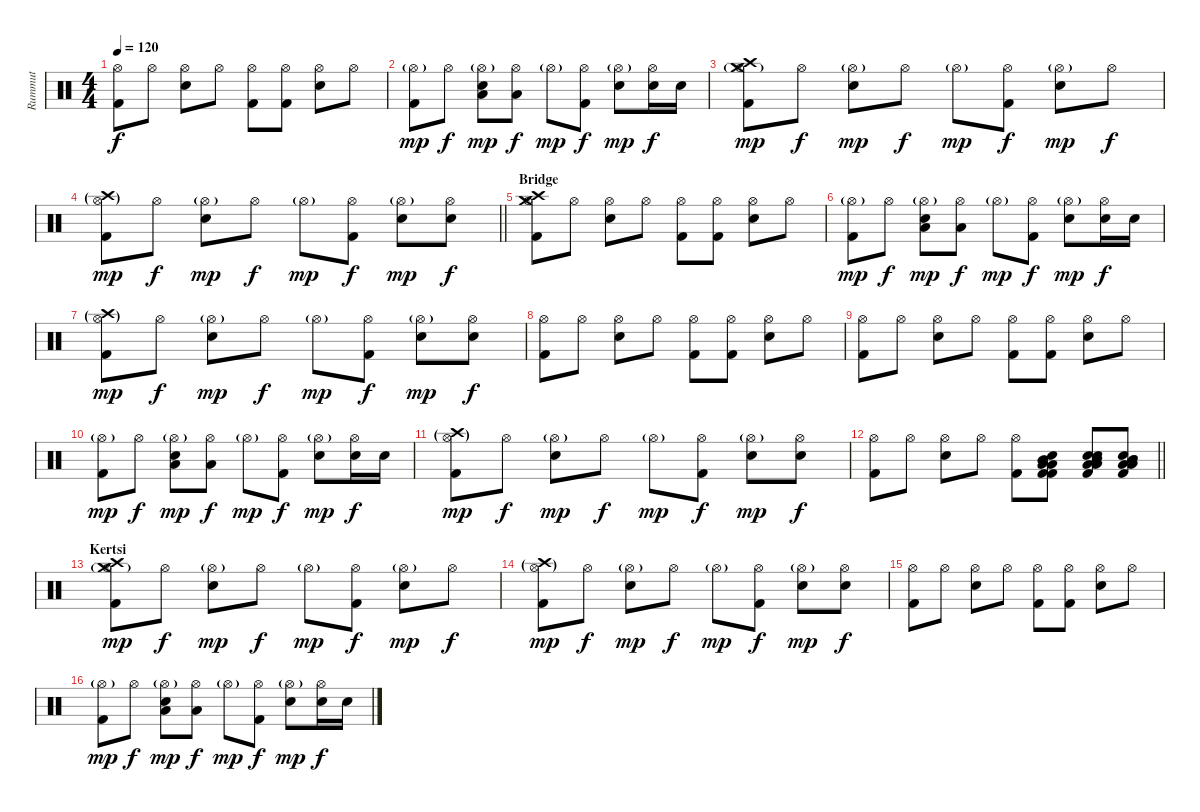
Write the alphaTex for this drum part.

\track ("Rummut" "Rummut") {instrument percussion}
\staff {score}
\articulation defaults
\ts (4 4)
\tempo 120
\clef neutral
\ks c
("Hi-Hat (open)" "Kick (hit) 2").8{dy f} "Hi-Hat (open)".8 ("Hi-Hat (open)" "Snare (hit) 2").8 "Hi-Hat (open)".8 ("Hi-Hat (open)" "Kick (hit) 2").8 ("Hi-Hat (open)" "Kick (hit) 2").8 ("Hi-Hat (open)" "Snare (hit) 2").8 "Hi-Hat (open)".8 |
("Hi-Hat (open)"{g} "Kick (hit) 2").8{dy mp} "Hi-Hat (open)".8{dy f} ("Hi-Hat (open)"{g} "Snare (hit) 2" "Low Tom (hit)").8{dy mp} ("Hi-Hat (open)" "Low Tom (hit)").8{dy f} "Hi-Hat (open)"{g}.8{dy mp} ("Hi-Hat (open)" "Kick (hit) 2").8{dy f} ("Hi-Hat (open)"{g} "Snare (hit) 2").8{dy mp} ("Hi-Hat (open)" "Snare (hit) 2").16{dy f} "Snare (hit) 2".16 |
("Hi-Hat (open)"{g} "Kick (hit) 2" "Crash medium (hit)" "Crash high (hit)").8{dy mp} "Hi-Hat (open)".8{dy f} ("Hi-Hat (open)"{g} "Snare (hit) 2").8{dy mp} "Hi-Hat (open)".8{dy f} "Hi-Hat (open)"{g}.8{dy mp} ("Hi-Hat (open)" "Kick (hit) 2").8{dy f} ("Hi-Hat (open)"{g} "Snare (hit) 2").8{dy mp} "Hi-Hat (open)".8{dy f} |
\barLineRight lightlight
("Hi-Hat (open)"{g} "Kick (hit) 2" "Crash high (hit)"{g}).8{dy mp} "Hi-Hat (open)".8{dy f} ("Hi-Hat (open)"{g} "Snare (hit) 2").8{dy mp} "Hi-Hat (open)".8{dy f} "Hi-Hat (open)"{g}.8{dy mp} ("Hi-Hat (open)" "Kick (hit) 2").8{dy f} ("Hi-Hat (open)"{g} "Snare (hit) 2").8{dy mp} ("Hi-Hat (open)" "Snare (hit) 2").8{dy f} |
\section ("" "Bridge")
("Hi-Hat (open)" "Kick (hit) 2" "Crash medium (hit)" "Crash high (hit)").8 "Hi-Hat (open)".8 ("Hi-Hat (open)" "Snare (hit) 2").8 "Hi-Hat (open)".8 ("Hi-Hat (open)" "Kick (hit) 2").8 ("Hi-Hat (open)" "Kick (hit) 2").8 ("Hi-Hat (open)" "Snare (hit) 2").8 "Hi-Hat (open)".8 |
("Hi-Hat (open)"{g} "Kick (hit) 2").8{dy mp} "Hi-Hat (open)".8{dy f} ("Hi-Hat (open)"{g} "Snare (hit) 2" "Low Tom (hit)").8{dy mp} ("Hi-Hat (open)" "Low Tom (hit)").8{dy f} "Hi-Hat (open)"{g}.8{dy mp} ("Hi-Hat (open)" "Kick (hit) 2").8{dy f} ("Hi-Hat (open)"{g} "Snare (hit) 2").8{dy mp} ("Hi-Hat (open)" "Snare (hit) 2").16{dy f} "Snare (hit) 2".16 |
("Hi-Hat (open)"{g} "Kick (hit) 2" "Crash high (hit)"{g}).8{dy mp} "Hi-Hat (open)".8{dy f} ("Hi-Hat (open)"{g} "Snare (hit) 2").8{dy mp} "Hi-Hat (open)".8{dy f} "Hi-Hat (open)"{g}.8{dy mp} ("Hi-Hat (open)" "Kick (hit) 2").8{dy f} ("Hi-Hat (open)"{g} "Snare (hit) 2").8{dy mp} ("Hi-Hat (open)" "Snare (hit) 2").8{dy f} |
("Hi-Hat (open)" "Kick (hit) 2").8 "Hi-Hat (open)".8 ("Hi-Hat (open)" "Snare (hit) 2").8 "Hi-Hat (open)".8 ("Hi-Hat (open)" "Kick (hit) 2").8 ("Hi-Hat (open)" "Kick (hit) 2").8 ("Hi-Hat (open)" "Snare (hit) 2").8 "Hi-Hat (open)".8 |
("Hi-Hat (open)" "Kick (hit) 2").8 "Hi-Hat (open)".8 ("Hi-Hat (open)" "Snare (hit) 2").8 "Hi-Hat (open)".8 ("Hi-Hat (open)" "Kick (hit) 2").8 ("Hi-Hat (open)" "Kick (hit) 2").8 ("Hi-Hat (open)" "Snare (hit) 2").8 "Hi-Hat (open)".8 |
("Hi-Hat (open)"{g} "Kick (hit) 2").8{dy mp} "Hi-Hat (open)".8{dy f} ("Hi-Hat (open)"{g} "Snare (hit) 2" "Low Tom (hit)").8{dy mp} ("Hi-Hat (open)" "Low Tom (hit)").8{dy f} "Hi-Hat (open)"{g}.8{dy mp} ("Hi-Hat (open)" "Kick (hit) 2").8{dy f} ("Hi-Hat (open)"{g} "Snare (hit) 2").8{dy mp} ("Hi-Hat (open)" "Snare (hit) 2").16{dy f} "Snare (hit) 2".16 |
("Hi-Hat (open)"{g} "Kick (hit) 2" "Crash high (hit)"{g}).8{dy mp} "Hi-Hat (open)".8{dy f} ("Hi-Hat (open)"{g} "Snare (hit) 2").8{dy mp} "Hi-Hat (open)".8{dy f} "Hi-Hat (open)"{g}.8{dy mp} ("Hi-Hat (open)" "Kick (hit) 2").8{dy f} ("Hi-Hat (open)"{g} "Snare (hit) 2").8{dy mp} ("Hi-Hat (open)" "Snare (hit) 2").8{dy f} |
\barLineRight lightlight
("Hi-Hat (open)" "Kick (hit) 2").8 "Hi-Hat (open)".8 ("Hi-Hat (open)" "Snare (hit) 2").8 "Hi-Hat (open)".8 ("Hi-Hat (open)" "Kick (hit) 2").8 ("Mid Tom (hit)" "Kick (hit) 2" "Low Tom (hit)" "Snare (hit) 2" "Low Floor Tom (hit)" "Kick (hit) 2").8 ("Mid Tom (hit)" "Snare (hit) 2" "Low Tom (hit)" "Snare (hit) 2" "Low Floor Tom (hit)" "Kick (hit) 2").8 ("Mid Tom (hit)" "Mid Tom (hit)" "Low Tom (hit)" "Snare (hit) 2" "Low Floor Tom (hit)" "Kick (hit) 2").8 |
\section ("" "Kertsi")
("Hi-Hat (open)"{g} "Kick (hit) 2" "Crash medium (hit)" "Crash high (hit)").8{dy mp} "Hi-Hat (open)".8{dy f} ("Hi-Hat (open)"{g} "Snare (hit) 2").8{dy mp} "Hi-Hat (open)".8{dy f} "Hi-Hat (open)"{g}.8{dy mp} ("Hi-Hat (open)" "Kick (hit) 2").8{dy f} ("Hi-Hat (open)"{g} "Snare (hit) 2").8{dy mp} "Hi-Hat (open)".8{dy f} |
("Hi-Hat (open)"{g} "Kick (hit) 2" "Crash high (hit)"{g}).8{dy mp} "Hi-Hat (open)".8{dy f} ("Hi-Hat (open)"{g} "Snare (hit) 2").8{dy mp} "Hi-Hat (open)".8{dy f} "Hi-Hat (open)"{g}.8{dy mp} ("Hi-Hat (open)" "Kick (hit) 2").8{dy f} ("Hi-Hat (open)"{g} "Snare (hit) 2").8{dy mp} ("Hi-Hat (open)" "Snare (hit) 2").8{dy f} |
("Hi-Hat (open)" "Kick (hit) 2").8 "Hi-Hat (open)".8 ("Hi-Hat (open)" "Snare (hit) 2").8 "Hi-Hat (open)".8 ("Hi-Hat (open)" "Kick (hit) 2").8 ("Hi-Hat (open)" "Kick (hit) 2").8 ("Hi-Hat (open)" "Snare (hit) 2").8 "Hi-Hat (open)".8 |
("Hi-Hat (open)"{g} "Kick (hit) 2").8{dy mp} "Hi-Hat (open)".8{dy f} ("Hi-Hat (open)"{g} "Snare (hit) 2" "Low Tom (hit)").8{dy mp} ("Hi-Hat (open)" "Low Tom (hit)").8{dy f} "Hi-Hat (open)"{g}.8{dy mp} ("Hi-Hat (open)" "Kick (hit) 2").8{dy f} ("Hi-Hat (open)"{g} "Snare (hit) 2").8{dy mp} ("Hi-Hat (open)" "Snare (hit) 2").16{dy f} "Snare (hit) 2".16
